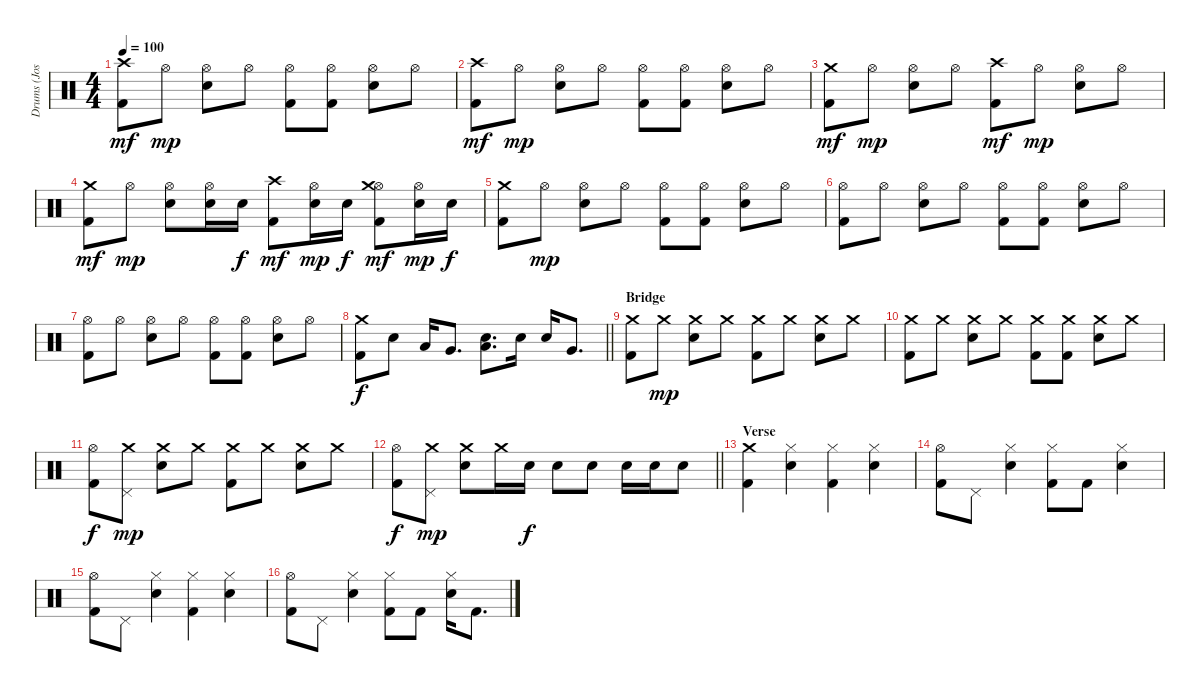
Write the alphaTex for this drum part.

\track ("Drums (Josh Freese)" "Drums (Jos") {instrument percussion}
\staff {score}
\articulation defaults
\ts (4 4)
\tempo 100
\clef neutral
\ks c
("Crash high (hit)" "Kick (hit) 2").8{dy mf} "Hi-Hat (open)".8{dy mp} ("Hi-Hat (open)" "Electric Snare (hit)").8 "Hi-Hat (open)".8 ("Hi-Hat (open)" "Kick (hit) 2").8 ("Hi-Hat (open)" "Kick (hit) 2").8 ("Hi-Hat (open)" "Electric Snare (hit)").8 "Hi-Hat (open)".8 |
("Crash high (hit)" "Kick (hit) 2").8{dy mf} "Hi-Hat (open)".8{dy mp} ("Hi-Hat (open)" "Electric Snare (hit)").8 "Hi-Hat (open)".8 ("Hi-Hat (open)" "Kick (hit) 2").8 ("Hi-Hat (open)" "Kick (hit) 2").8 ("Hi-Hat (open)" "Electric Snare (hit)").8 "Hi-Hat (open)".8 |
("Crash medium (hit)" "Kick (hit) 2").8{dy mf} "Hi-Hat (open)".8{dy mp} ("Hi-Hat (open)" "Electric Snare (hit)").8 "Hi-Hat (open)".8 ("Crash high (hit)" "Kick (hit) 2").8{dy mf} "Hi-Hat (open)".8{dy mp} ("Hi-Hat (open)" "Electric Snare (hit)").8 "Hi-Hat (open)".8 |
("Crash medium (hit)" "Kick (hit) 2").8{dy mf} "Hi-Hat (open)".8{dy mp} ("Hi-Hat (open)" "Electric Snare (hit)").8 ("Hi-Hat (open)" "Electric Snare (hit)").16 "Electric Snare (hit)".16{dy f} ("Crash high (hit)" "Kick (hit) 2").8{dy mf} ("Hi-Hat (open)" "Electric Snare (hit)").16{dy mp} "Electric Snare (hit)".16{dy f} ("Hi-Hat (open)" "Crash medium (hit)" "Kick (hit) 2").8{dy mf} ("Hi-Hat (open)" "Electric Snare (hit)").16{dy mp} "Electric Snare (hit)".16{dy f} |
("Crash medium (hit)" "Kick (hit) 2").8 "Hi-Hat (open)".8{dy mp} ("Hi-Hat (open)" "Electric Snare (hit)").8 "Hi-Hat (open)".8 ("Hi-Hat (open)" "Kick (hit) 2").8 ("Hi-Hat (open)" "Kick (hit) 2").8 ("Hi-Hat (open)" "Electric Snare (hit)").8 "Hi-Hat (open)".8 |
("Hi-Hat (open)" "Kick (hit) 2").8 "Hi-Hat (open)".8 ("Hi-Hat (open)" "Electric Snare (hit)").8 "Hi-Hat (open)".8 ("Hi-Hat (open)" "Kick (hit) 2").8 ("Hi-Hat (open)" "Kick (hit) 2").8 ("Hi-Hat (open)" "Electric Snare (hit)").8 "Hi-Hat (open)".8 |
("Hi-Hat (open)" "Kick (hit) 2").8 "Hi-Hat (open)".8 ("Hi-Hat (open)" "Electric Snare (hit)").8 "Hi-Hat (open)".8 ("Hi-Hat (open)" "Kick (hit) 2").8 ("Hi-Hat (open)" "Kick (hit) 2").8 ("Hi-Hat (open)" "Electric Snare (hit)").8 "Hi-Hat (open)".8 |
\barLineRight lightlight
("Crash medium (hit)" "Kick (hit) 2").8{dy f} "Electric Snare (hit)".8 "Low Tom (hit)".16 "Very Low Tom (hit)".8{d} ("Electric Snare (hit)" "Low Floor Tom (hit)").8{d} "Electric Snare (hit)".16 "Electric Snare (hit)".16 "Very Low Tom (hit)".8{d} |
\section ("" "Bridge")
("Crash medium (hit)" "Kick (hit) 2").8 "Crash medium (hit)".8{dy mp} ("Crash medium (hit)" "Electric Snare (hit)").8 "Crash medium (hit)".8 ("Crash medium (hit)" "Kick (hit) 2").8 "Crash medium (hit)".8 ("Crash medium (hit)" "Electric Snare (hit)").8 "Crash medium (hit)".8 |
("Crash medium (hit)" "Kick (hit) 2").8 "Crash medium (hit)".8 ("Crash medium (hit)" "Electric Snare (hit)").8 "Crash medium (hit)".8 ("Crash medium (hit)" "Kick (hit) 2").8 ("Crash medium (hit)" "Kick (hit) 2").8 ("Crash medium (hit)" "Electric Snare (hit)").8 "Crash medium (hit)".8 |
("Hi-Hat (open)" "Kick (hit) 2").8{dy f} ("Pedal Hi-Hat (hit)" "Crash medium (hit)").8{dy mp} ("Crash medium (hit)" "Electric Snare (hit)").8 "Crash medium (hit)".8 ("Crash medium (hit)" "Kick (hit) 2").8 "Crash medium (hit)".8 ("Crash medium (hit)" "Electric Snare (hit)").8 "Crash medium (hit)".8 |
\barLineRight lightlight
("Hi-Hat (open)" "Kick (hit) 2").8{dy f} ("Pedal Hi-Hat (hit)" "Crash medium (hit)").8{dy mp} ("Crash medium (hit)" "Electric Snare (hit)").8 "Crash medium (hit)".16 "Electric Snare (hit)".16{dy f} "Electric Snare (hit)".8 "Electric Snare (hit)".8 "Electric Snare (hit)".16 "Electric Snare (hit)".16 "Electric Snare (hit)".8 |
\section ("" "Verse")
("Crash medium (hit)" "Kick (hit) 2").4 ("Hi-Hat (closed)" "Electric Snare (hit)").4 ("Hi-Hat (closed)" "Kick (hit) 2").4 ("Hi-Hat (closed)" "Electric Snare (hit)").4 |
("Hi-Hat (open)" "Kick (hit) 2").8 "Pedal Hi-Hat (hit)".8 ("Hi-Hat (closed)" "Electric Snare (hit)").4 ("Hi-Hat (closed)" "Kick (hit) 2").8 "Kick (hit) 2".8 ("Hi-Hat (closed)" "Electric Snare (hit)").4 |
("Hi-Hat (open)" "Kick (hit) 2").8 "Pedal Hi-Hat (hit)".8 ("Hi-Hat (closed)" "Electric Snare (hit)").4 ("Hi-Hat (closed)" "Kick (hit) 2").4 ("Hi-Hat (closed)" "Electric Snare (hit)").4 |
("Hi-Hat (open)" "Kick (hit) 2").8 "Pedal Hi-Hat (hit)".8 ("Hi-Hat (closed)" "Electric Snare (hit)").4 ("Hi-Hat (closed)" "Kick (hit) 2").8 "Kick (hit) 2".8 ("Hi-Hat (closed)" "Electric Snare (hit)").16 "Kick (hit) 2".8{d}
